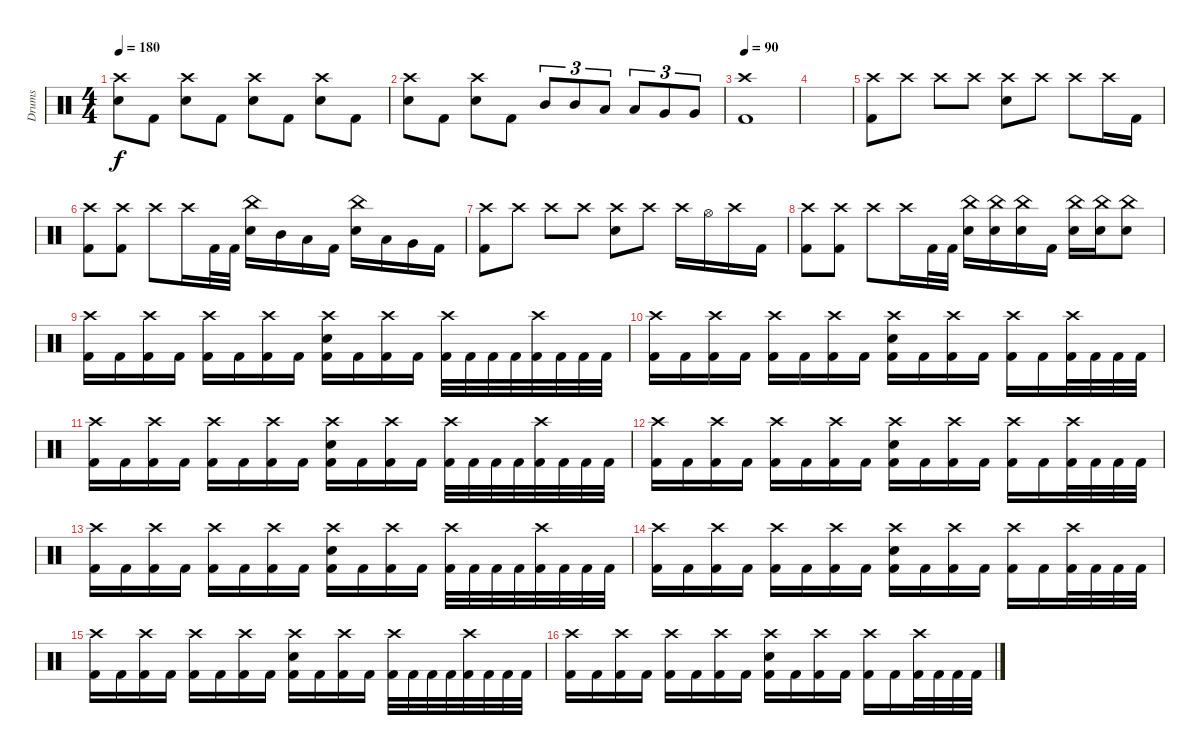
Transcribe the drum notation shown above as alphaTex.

\track ("Drums" "Drums") {instrument percussion}
\staff {score}
\articulation defaults
\ts (4 4)
\tempo 180
\clef neutral
\ks c
("Crash high (hit)" "Electric Snare (hit)").8{dy f} "Kick (hit) 2".8 ("Crash high (hit)" "Electric Snare (hit)").8 "Kick (hit) 2".8 ("Crash high (hit)" "Electric Snare (hit)").8 "Kick (hit) 2".8 ("Crash high (hit)" "Electric Snare (hit)").8 "Kick (hit) 2".8 |
("Crash high (hit)" "Electric Snare (hit)").8 "Kick (hit) 2".8 ("Crash high (hit)" "Electric Snare (hit)").8 "Kick (hit) 2".8 "Mid Tom (hit)".8{tu (3 2)} "Mid Tom (hit)".8{tu (3 2)} "Low Tom (hit)".8{tu (3 2)} "Low Tom (hit)".8{tu (3 2)} "Very Low Tom (hit)".8{tu (3 2)} "Very Low Tom (hit)".8{tu (3 2)} |
\tempo 90
("Crash high (hit)" "Kick (hit) 2").1 |
|
("Crash high (hit)" "Kick (hit) 2").8 "Crash high (hit)".8 "Crash high (hit)".8 "Crash high (hit)".8 ("Crash high (hit)" "Electric Snare (hit)").8 "Crash high (hit)".8 "Crash high (hit)".8 "Crash high (hit)".16 "Kick (hit) 2".16 |
("Crash high (hit)" "Kick (hit) 2").8 ("Crash high (hit)" "Kick (hit) 2").8 "Crash high (hit)".8 "Crash high (hit)".16 "Kick (hit) 2".32 "Kick (hit) 2".32 ("China (hit)" "Electric Snare (hit)").16 "Mid Tom (hit)".16 "Low Tom (hit)".16 "Kick (hit) 2".16 ("China (hit)" "Electric Snare (hit)").16 "Low Tom (hit)".16 "Very Low Tom (hit)".16 "Kick (hit) 2".16 |
("Crash high (hit)" "Kick (hit) 2").8 "Crash high (hit)".8 "Crash high (hit)".8 "Crash high (hit)".8 ("Crash high (hit)" "Electric Snare (hit)").8 "Crash high (hit)".8 "Crash high (hit)".16 "Hi-Hat (open)".16 "Crash high (hit)".16 "Kick (hit) 2".16 |
("Crash high (hit)" "Kick (hit) 2").8 ("Crash high (hit)" "Kick (hit) 2").8 "Crash high (hit)".8 "Crash high (hit)".16 "Kick (hit) 2".32 "Kick (hit) 2".32 ("China (hit)" "Electric Snare (hit)").16 ("China (hit)" "Electric Snare (hit)").16 ("China (hit)" "Electric Snare (hit)").16 "Kick (hit) 2".16 ("China (hit)" "Electric Snare (hit)").16 ("China (hit)" "Electric Snare (hit)").16 ("China (hit)" "Electric Snare (hit)").8 |
("Crash high (hit)" "Kick (hit) 2").16 "Kick (hit) 2".16 ("Crash high (hit)" "Kick (hit) 2").16 "Kick (hit) 2".16 ("Crash high (hit)" "Kick (hit) 2").16 "Kick (hit) 2".16 ("Crash high (hit)" "Kick (hit) 2").16 "Kick (hit) 2".16 ("Crash high (hit)" "Electric Snare (hit)" "Kick (hit) 2").16 "Kick (hit) 2".16 ("Crash high (hit)" "Kick (hit) 2").16 "Kick (hit) 2".16 ("Crash high (hit)" "Kick (hit) 2").32 "Kick (hit) 2".32 "Kick (hit) 2".32 "Kick (hit) 2".32 ("Crash high (hit)" "Kick (hit) 2").32 "Kick (hit) 2".32 "Kick (hit) 2".32 "Kick (hit) 2".32 |
("Crash high (hit)" "Kick (hit) 2").16 "Kick (hit) 2".16 ("Crash high (hit)" "Kick (hit) 2").16 "Kick (hit) 2".16 ("Crash high (hit)" "Kick (hit) 2").16 "Kick (hit) 2".16 ("Crash high (hit)" "Kick (hit) 2").16 "Kick (hit) 2".16 ("Crash high (hit)" "Electric Snare (hit)" "Kick (hit) 2").16 "Kick (hit) 2".16 ("Crash high (hit)" "Kick (hit) 2").16 "Kick (hit) 2".16 ("Crash high (hit)" "Kick (hit) 2").16 "Kick (hit) 2".16 ("Crash high (hit)" "Kick (hit) 2").32 "Kick (hit) 2".32 "Kick (hit) 2".32 "Kick (hit) 2".32 |
("Crash high (hit)" "Kick (hit) 2").16 "Kick (hit) 2".16 ("Crash high (hit)" "Kick (hit) 2").16 "Kick (hit) 2".16 ("Crash high (hit)" "Kick (hit) 2").16 "Kick (hit) 2".16 ("Crash high (hit)" "Kick (hit) 2").16 "Kick (hit) 2".16 ("Crash high (hit)" "Electric Snare (hit)" "Kick (hit) 2").16 "Kick (hit) 2".16 ("Crash high (hit)" "Kick (hit) 2").16 "Kick (hit) 2".16 ("Crash high (hit)" "Kick (hit) 2").32 "Kick (hit) 2".32 "Kick (hit) 2".32 "Kick (hit) 2".32 ("Crash high (hit)" "Kick (hit) 2").32 "Kick (hit) 2".32 "Kick (hit) 2".32 "Kick (hit) 2".32 |
("Crash high (hit)" "Kick (hit) 2").16 "Kick (hit) 2".16 ("Crash high (hit)" "Kick (hit) 2").16 "Kick (hit) 2".16 ("Crash high (hit)" "Kick (hit) 2").16 "Kick (hit) 2".16 ("Crash high (hit)" "Kick (hit) 2").16 "Kick (hit) 2".16 ("Crash high (hit)" "Electric Snare (hit)" "Kick (hit) 2").16 "Kick (hit) 2".16 ("Crash high (hit)" "Kick (hit) 2").16 "Kick (hit) 2".16 ("Crash high (hit)" "Kick (hit) 2").16 "Kick (hit) 2".16 ("Crash high (hit)" "Kick (hit) 2").32 "Kick (hit) 2".32 "Kick (hit) 2".32 "Kick (hit) 2".32 |
("Crash high (hit)" "Kick (hit) 2").16{volume 0} "Kick (hit) 2".16 ("Crash high (hit)" "Kick (hit) 2").16 "Kick (hit) 2".16 ("Crash high (hit)" "Kick (hit) 2").16 "Kick (hit) 2".16 ("Crash high (hit)" "Kick (hit) 2").16 "Kick (hit) 2".16 ("Crash high (hit)" "Electric Snare (hit)" "Kick (hit) 2").16 "Kick (hit) 2".16 ("Crash high (hit)" "Kick (hit) 2").16 "Kick (hit) 2".16 ("Crash high (hit)" "Kick (hit) 2").32 "Kick (hit) 2".32 "Kick (hit) 2".32 "Kick (hit) 2".32 ("Crash high (hit)" "Kick (hit) 2").32 "Kick (hit) 2".32 "Kick (hit) 2".32 "Kick (hit) 2".32 |
("Crash high (hit)" "Kick (hit) 2").16 "Kick (hit) 2".16 ("Crash high (hit)" "Kick (hit) 2").16 "Kick (hit) 2".16 ("Crash high (hit)" "Kick (hit) 2").16 "Kick (hit) 2".16 ("Crash high (hit)" "Kick (hit) 2").16 "Kick (hit) 2".16 ("Crash high (hit)" "Electric Snare (hit)" "Kick (hit) 2").16 "Kick (hit) 2".16 ("Crash high (hit)" "Kick (hit) 2").16 "Kick (hit) 2".16 ("Crash high (hit)" "Kick (hit) 2").16 "Kick (hit) 2".16 ("Crash high (hit)" "Kick (hit) 2").32 "Kick (hit) 2".32 "Kick (hit) 2".32 "Kick (hit) 2".32 |
("Crash high (hit)" "Kick (hit) 2").16 "Kick (hit) 2".16 ("Crash high (hit)" "Kick (hit) 2").16 "Kick (hit) 2".16 ("Crash high (hit)" "Kick (hit) 2").16 "Kick (hit) 2".16 ("Crash high (hit)" "Kick (hit) 2").16 "Kick (hit) 2".16 ("Crash high (hit)" "Electric Snare (hit)" "Kick (hit) 2").16 "Kick (hit) 2".16 ("Crash high (hit)" "Kick (hit) 2").16 "Kick (hit) 2".16 ("Crash high (hit)" "Kick (hit) 2").32 "Kick (hit) 2".32 "Kick (hit) 2".32 "Kick (hit) 2".32 ("Crash high (hit)" "Kick (hit) 2").32 "Kick (hit) 2".32 "Kick (hit) 2".32 "Kick (hit) 2".32 |
("Crash high (hit)" "Kick (hit) 2").16 "Kick (hit) 2".16 ("Crash high (hit)" "Kick (hit) 2").16 "Kick (hit) 2".16 ("Crash high (hit)" "Kick (hit) 2").16 "Kick (hit) 2".16 ("Crash high (hit)" "Kick (hit) 2").16 "Kick (hit) 2".16 ("Crash high (hit)" "Electric Snare (hit)" "Kick (hit) 2").16 "Kick (hit) 2".16 ("Crash high (hit)" "Kick (hit) 2").16 "Kick (hit) 2".16 ("Crash high (hit)" "Kick (hit) 2").16 "Kick (hit) 2".16 ("Crash high (hit)" "Kick (hit) 2").32 "Kick (hit) 2".32 "Kick (hit) 2".32 "Kick (hit) 2".32
